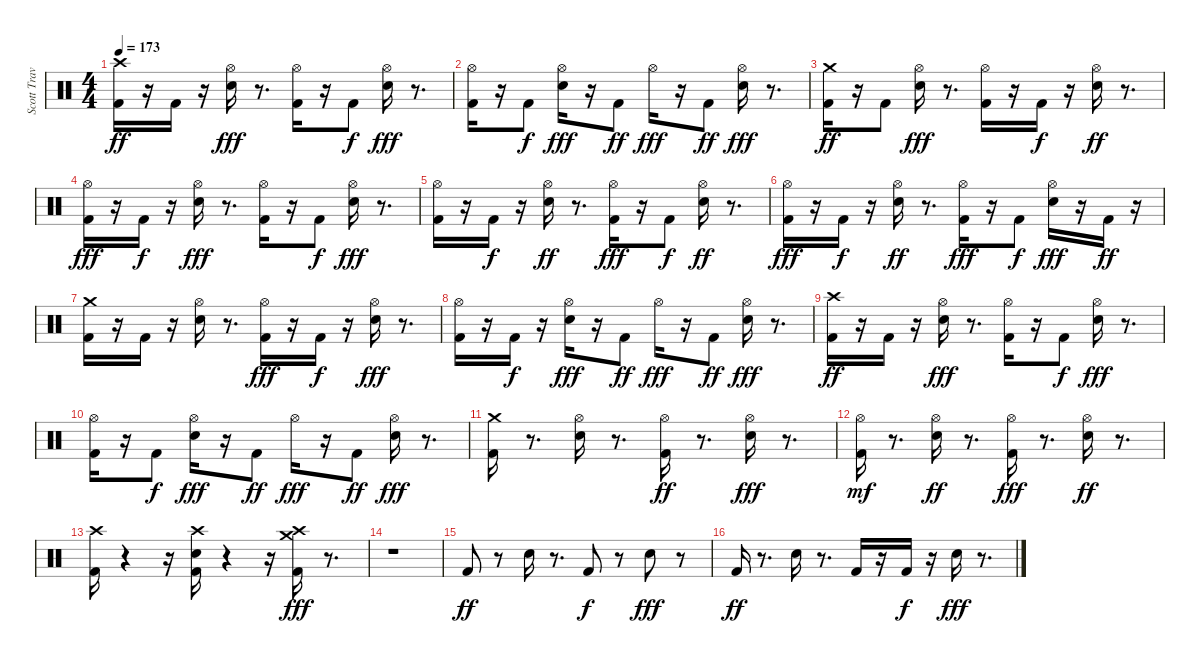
\track ("Scott Travis" "Scott Trav") {instrument percussion}
\staff {score}
\articulation defaults
\ts (4 4)
\tempo 173
\clef neutral
\ks c
("Crash high (hit)" "Kick (hit) 2").16{dy ff} r.16 "Kick (hit) 2".16 r.16 ("Hi-Hat (open)" "Snare (hit) 2").16{dy fff} r.8{d} ("Kick (hit) 2" "Hi-Hat (open)").16 r.16 "Kick (hit) 2".8{dy f} ("Snare (hit) 2" "Hi-Hat (open)").16{dy fff} r.8{d} |
("Kick (hit) 2" "Hi-Hat (open)").16 r.16 "Kick (hit) 2".8{dy f} ("Snare (hit) 2" "Hi-Hat (open)").16{dy fff} r.16 "Kick (hit) 2".8{dy ff} "Hi-Hat (open)".16{dy fff} r.16 "Kick (hit) 2".8{dy ff} ("Snare (hit) 2" "Hi-Hat (open)").16{dy fff} r.8{d} |
("Kick (hit) 2" "Crash medium (hit)").16{dy ff} r.16 "Kick (hit) 2".8 ("Hi-Hat (open)" "Snare (hit) 2").16{dy fff} r.8{d} ("Kick (hit) 2" "Hi-Hat (open)").16 r.16 "Kick (hit) 2".16{dy f} r.16 ("Hi-Hat (open)" "Snare (hit) 2").16{dy ff} r.8{d} |
("Hi-Hat (open)" "Kick (hit) 2").16{dy fff} r.16 "Kick (hit) 2".16{dy f} r.16 ("Snare (hit) 2" "Hi-Hat (open)").16{dy fff} r.8{d} ("Kick (hit) 2" "Hi-Hat (open)").16 r.16 "Kick (hit) 2".8{dy f} ("Snare (hit) 2" "Hi-Hat (open)").16{dy fff} r.8{d} |
("Kick (hit) 2" "Hi-Hat (open)").16 r.16 "Kick (hit) 2".16{dy f} r.16 ("Hi-Hat (open)" "Snare (hit) 2").16{dy ff} r.8{d} ("Kick (hit) 2" "Hi-Hat (open)").16{dy fff} r.16 "Kick (hit) 2".8{dy f} ("Hi-Hat (open)" "Snare (hit) 2").16{dy ff} r.8{d} |
("Kick (hit) 2" "Hi-Hat (open)").16{dy fff} r.16 "Kick (hit) 2".16{dy f} r.16 ("Hi-Hat (open)" "Snare (hit) 2").16{dy ff} r.8{d} ("Kick (hit) 2" "Hi-Hat (open)").16{dy fff} r.16 "Kick (hit) 2".8{dy f} ("Snare (hit) 2" "Hi-Hat (open)").16{dy fff} r.16 "Kick (hit) 2".16{dy ff} r.16 |
("Crash medium (hit)" "Kick (hit) 2").16 r.16 "Kick (hit) 2".16 r.16 ("Snare (hit) 2" "Hi-Hat (open)").16 r.8{d} ("Kick (hit) 2" "Hi-Hat (open)").16{dy fff} r.16 "Kick (hit) 2".16{dy f} r.16 ("Snare (hit) 2" "Hi-Hat (open)").16{dy fff} r.8{d} |
("Kick (hit) 2" "Hi-Hat (open)").16 r.16 "Kick (hit) 2".16{dy f} r.16 ("Snare (hit) 2" "Hi-Hat (open)").16{dy fff} r.16 "Kick (hit) 2".8{dy ff} "Hi-Hat (open)".16{dy fff} r.16 "Kick (hit) 2".8{dy ff} ("Snare (hit) 2" "Hi-Hat (open)").16{dy fff} r.8{d} |
("Crash high (hit)" "Kick (hit) 2").16{dy ff} r.16 "Kick (hit) 2".16 r.16 ("Hi-Hat (open)" "Snare (hit) 2").16{dy fff} r.8{d} ("Kick (hit) 2" "Hi-Hat (open)").16 r.16 "Kick (hit) 2".8{dy f} ("Snare (hit) 2" "Hi-Hat (open)").16{dy fff} r.8{d} |
("Kick (hit) 2" "Hi-Hat (open)").16 r.16 "Kick (hit) 2".8{dy f} ("Snare (hit) 2" "Hi-Hat (open)").16{dy fff} r.16 "Kick (hit) 2".8{dy ff} "Hi-Hat (open)".16{dy fff} r.16 "Kick (hit) 2".8{dy ff} ("Snare (hit) 2" "Hi-Hat (open)").16{dy fff} r.8{d} |
("Crash medium (hit)" "Kick (hit) 2").16 r.8{d} ("Snare (hit) 2" "Hi-Hat (open)").16 r.8{d} ("Hi-Hat (open)" "Kick (hit) 2").16{dy ff} r.8{d} ("Hi-Hat (open)" "Snare (hit) 2").16{dy fff} r.8{d} |
("Hi-Hat (open)" "Kick (hit) 2").16{dy mf} r.8{d} ("Hi-Hat (open)" "Snare (hit) 2").16{dy ff} r.8{d} ("Kick (hit) 2" "Hi-Hat (open)").16{dy fff} r.8{d} ("Hi-Hat (open)" "Snare (hit) 2").16{dy ff} r.8{d} |
("Crash high (hit)" "Kick (hit) 2").16 r.4 r.16 ("Crash high (hit)" "Kick (hit) 2" "Snare (hit) 2").16 r.4 r.16 ("Crash medium (hit)" "Kick (hit) 2" "Crash high (hit)").16{dy fff} r.8{d} |
r.1 |
"Kick (hit) 2".8{dy ff} r.8 "Snare (hit) 2".16 r.8{d} "Kick (hit) 2".8{dy f} r.8 "Snare (hit) 2".8{dy fff} r.8 |
"Kick (hit) 2".16{dy ff} r.8{d} "Snare (hit) 2".16 r.8{d} "Kick (hit) 2".16 r.16 "Kick (hit) 2".16{dy f} r.16 "Snare (hit) 2".16{dy fff} r.8{d}
